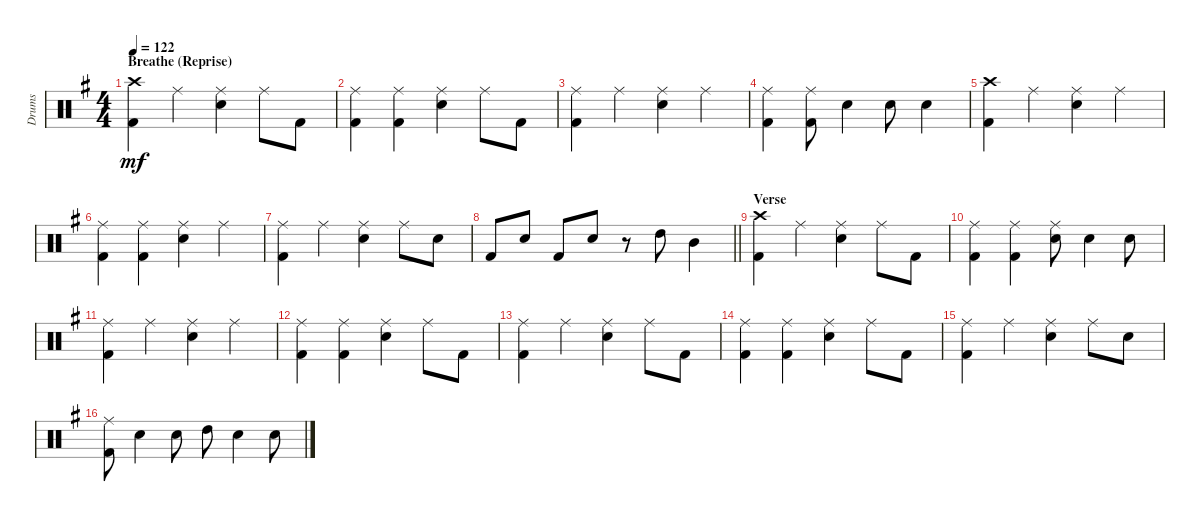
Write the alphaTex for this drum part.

\track ("Drums" "Drums") {instrument percussion}
\staff {score}
\articulation defaults
\ts (4 4)
\section ("" "Breathe (Reprise)")
\tempo 122
\clef neutral
\ks eminor
("Crash high (hit)" "Kick (hit) 2").4{dy mf} "Ride (middle)".4 ("Ride (middle)" "Electric Snare (hit)").4 "Ride (middle)".8 "Kick (hit) 2".8 |
("Ride (middle)" "Kick (hit) 2").4 ("Ride (middle)" "Kick (hit) 2").4 ("Ride (middle)" "Electric Snare (hit)").4 "Ride (middle)".8 "Kick (hit) 2".8 |
("Ride (middle)" "Kick (hit) 2").4 "Ride (middle)".4 ("Ride (middle)" "Electric Snare (hit)").4 "Ride (middle)".4 |
("Ride (middle)" "Kick (hit) 2").4 ("Ride (middle)" "Kick (hit) 2").8 "Electric Snare (hit)".4 "Electric Snare (hit)".8 "Electric Snare (hit)".4 |
("Crash high (hit)" "Kick (hit) 2").4 "Ride (middle)".4 ("Ride (middle)" "Electric Snare (hit)").4 "Ride (middle)".4 |
("Ride (middle)" "Kick (hit) 2").4 ("Ride (middle)" "Kick (hit) 2").4 ("Ride (middle)" "Electric Snare (hit)").4 "Ride (middle)".4 |
("Ride (middle)" "Kick (hit) 2").4 "Ride (middle)".4 ("Ride (middle)" "Electric Snare (hit)").4 "Ride (middle)".8 "Electric Snare (hit)".8 |
\barLineRight lightlight "Kick (hit) 2".8 "Electric Snare (hit)".8 "Kick (hit) 2".8 "Electric Snare (hit)".8
r.8 "High Tom (hit)".8 "Mid Tom (hit)".4 |
\section ("" "Verse")
("Crash high (hit)" "Kick (hit) 2").4 "Ride (middle)".4 ("Ride (middle)" "Electric Snare (hit)").4 "Ride (middle)".8 "Kick (hit) 2".8 |
("Ride (middle)" "Kick (hit) 2").4 ("Ride (middle)" "Kick (hit) 2").4 ("Ride (middle)" "Electric Snare (hit)").8 "Electric Snare (hit)".4 "Electric Snare (hit)".8 |
("Ride (middle)" "Kick (hit) 2").4 "Ride (middle)".4 ("Ride (middle)" "Electric Snare (hit)").4 "Ride (middle)".4 |
("Ride (middle)" "Kick (hit) 2").4 ("Ride (middle)" "Kick (hit) 2").4 ("Ride (middle)" "Electric Snare (hit)").4 "Ride (middle)".8 "Kick (hit) 2".8 |
("Ride (middle)" "Kick (hit) 2").4 "Ride (middle)".4 ("Ride (middle)" "Electric Snare (hit)").4 "Ride (middle)".8 "Kick (hit) 2".8 |
("Ride (middle)" "Kick (hit) 2").4 ("Ride (middle)" "Kick (hit) 2").4 ("Ride (middle)" "Electric Snare (hit)").4 "Ride (middle)".8 "Kick (hit) 2".8 |
("Ride (middle)" "Kick (hit) 2").4 "Ride (middle)".4 ("Ride (middle)" "Electric Snare (hit)").4 "Ride (middle)".8 "Electric Snare (hit)".8 |
("Ride (middle)" "Kick (hit) 2").8 "Electric Snare (hit)".4 "Electric Snare (hit)".8 "High Tom (hit)".8 "Electric Snare (hit)".4 "Electric Snare (hit)".8
